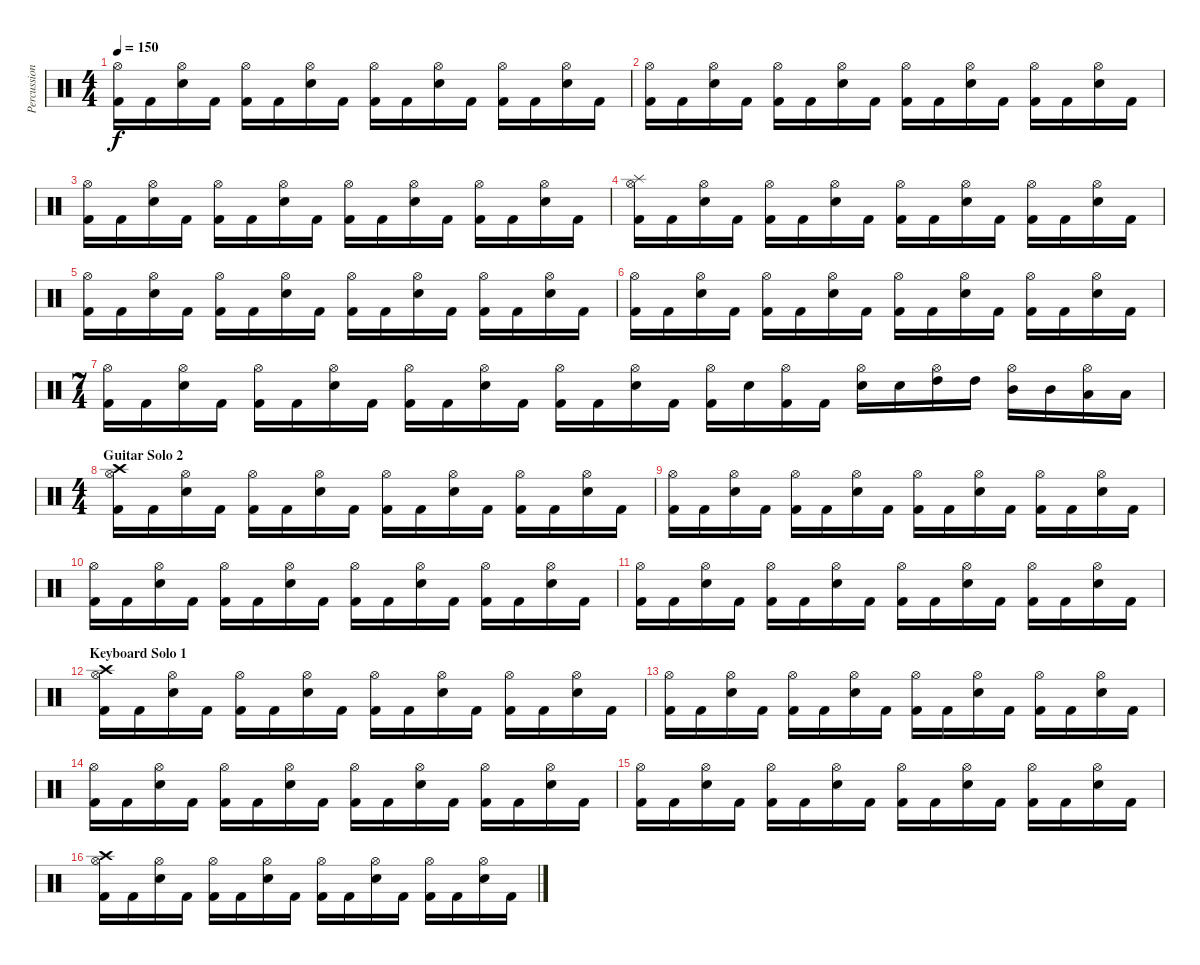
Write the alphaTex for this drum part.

\track ("Percussions" "Percussion") {instrument percussion}
\staff {score}
\articulation defaults
\ts (4 4)
\tempo 150
\clef neutral
\ks c
("Hi-Hat (open)" "Kick (hit) 2").16{dy f} "Kick (hit) 2".16 ("Hi-Hat (open)" "Electric Snare (hit)").16 "Kick (hit) 2".16 ("Hi-Hat (open)" "Kick (hit) 2").16 "Kick (hit) 2".16 ("Hi-Hat (open)" "Electric Snare (hit)").16 "Kick (hit) 2".16 ("Hi-Hat (open)" "Kick (hit) 2").16 "Kick (hit) 2".16 ("Hi-Hat (open)" "Electric Snare (hit)").16 "Kick (hit) 2".16 ("Hi-Hat (open)" "Kick (hit) 2").16 "Kick (hit) 2".16 ("Hi-Hat (open)" "Electric Snare (hit)").16 "Kick (hit) 2".16 |
("Hi-Hat (open)" "Kick (hit) 2").16 "Kick (hit) 2".16 ("Hi-Hat (open)" "Electric Snare (hit)").16 "Kick (hit) 2".16 ("Hi-Hat (open)" "Kick (hit) 2").16 "Kick (hit) 2".16 ("Hi-Hat (open)" "Electric Snare (hit)").16 "Kick (hit) 2".16 ("Hi-Hat (open)" "Kick (hit) 2").16 "Kick (hit) 2".16 ("Hi-Hat (open)" "Electric Snare (hit)").16 "Kick (hit) 2".16 ("Hi-Hat (open)" "Kick (hit) 2").16 "Kick (hit) 2".16 ("Hi-Hat (open)" "Electric Snare (hit)").16 "Kick (hit) 2".16 |
("Hi-Hat (open)" "Kick (hit) 2").16 "Kick (hit) 2".16 ("Hi-Hat (open)" "Electric Snare (hit)").16 "Kick (hit) 2".16 ("Hi-Hat (open)" "Kick (hit) 2").16 "Kick (hit) 2".16 ("Hi-Hat (open)" "Electric Snare (hit)").16 "Kick (hit) 2".16 ("Hi-Hat (open)" "Kick (hit) 2").16 "Kick (hit) 2".16 ("Hi-Hat (open)" "Electric Snare (hit)").16 "Kick (hit) 2".16 ("Hi-Hat (open)" "Kick (hit) 2").16 "Kick (hit) 2".16 ("Hi-Hat (open)" "Electric Snare (hit)").16 "Kick (hit) 2".16 |
("Splash (hit)" "Hi-Hat (open)" "Kick (hit) 2").16 "Kick (hit) 2".16 ("Hi-Hat (open)" "Electric Snare (hit)").16 "Kick (hit) 2".16 ("Hi-Hat (open)" "Kick (hit) 2").16 "Kick (hit) 2".16 ("Hi-Hat (open)" "Electric Snare (hit)").16 "Kick (hit) 2".16 ("Hi-Hat (open)" "Kick (hit) 2").16 "Kick (hit) 2".16 ("Hi-Hat (open)" "Electric Snare (hit)").16 "Kick (hit) 2".16 ("Hi-Hat (open)" "Kick (hit) 2").16 "Kick (hit) 2".16 ("Hi-Hat (open)" "Electric Snare (hit)").16 "Kick (hit) 2".16 |
("Hi-Hat (open)" "Kick (hit) 2").16 "Kick (hit) 2".16 ("Hi-Hat (open)" "Electric Snare (hit)").16 "Kick (hit) 2".16 ("Hi-Hat (open)" "Kick (hit) 2").16 "Kick (hit) 2".16 ("Hi-Hat (open)" "Electric Snare (hit)").16 "Kick (hit) 2".16 ("Hi-Hat (open)" "Kick (hit) 2").16 "Kick (hit) 2".16 ("Hi-Hat (open)" "Electric Snare (hit)").16 "Kick (hit) 2".16 ("Hi-Hat (open)" "Kick (hit) 2").16 "Kick (hit) 2".16 ("Hi-Hat (open)" "Electric Snare (hit)").16 "Kick (hit) 2".16 |
("Hi-Hat (open)" "Kick (hit) 2").16 "Kick (hit) 2".16 ("Hi-Hat (open)" "Electric Snare (hit)").16 "Kick (hit) 2".16 ("Hi-Hat (open)" "Kick (hit) 2").16 "Kick (hit) 2".16 ("Hi-Hat (open)" "Electric Snare (hit)").16 "Kick (hit) 2".16 ("Hi-Hat (open)" "Kick (hit) 2").16 "Kick (hit) 2".16 ("Hi-Hat (open)" "Electric Snare (hit)").16 "Kick (hit) 2".16 ("Hi-Hat (open)" "Kick (hit) 2").16 "Kick (hit) 2".16 ("Hi-Hat (open)" "Electric Snare (hit)").16 "Kick (hit) 2".16 |
\ts (7 4)
("Hi-Hat (open)" "Kick (hit) 2").16 "Kick (hit) 2".16 ("Hi-Hat (open)" "Electric Snare (hit)").16 "Kick (hit) 2".16 ("Hi-Hat (open)" "Kick (hit) 2").16 "Kick (hit) 2".16 ("Hi-Hat (open)" "Electric Snare (hit)").16 "Kick (hit) 2".16 ("Hi-Hat (open)" "Kick (hit) 2").16 "Kick (hit) 2".16 ("Hi-Hat (open)" "Electric Snare (hit)").16 "Kick (hit) 2".16 ("Hi-Hat (open)" "Kick (hit) 2").16 "Kick (hit) 2".16 ("Hi-Hat (open)" "Electric Snare (hit)").16 "Kick (hit) 2".16 ("Hi-Hat (open)" "Kick (hit) 2").16 "Electric Snare (hit)".16 ("Hi-Hat (open)" "Kick (hit) 2").16 "Kick (hit) 2".16 ("Hi-Hat (open)" "Electric Snare (hit)").16 "Electric Snare (hit)".16 ("Hi-Hat (open)" "High Tom (hit)").16 "High Tom (hit)".16 ("Hi-Hat (open)" "Mid Tom (hit)").16 "Mid Tom (hit)".16 ("Hi-Hat (open)" "Low Tom (hit)").16 "Low Tom (hit)".16 |
\ts (4 4)
\section ("" "Guitar Solo 2")
("Crash high (hit)" "Hi-Hat (open)" "Kick (hit) 2").16 "Kick (hit) 2".16 ("Hi-Hat (open)" "Electric Snare (hit)").16 "Kick (hit) 2".16 ("Hi-Hat (open)" "Kick (hit) 2").16 "Kick (hit) 2".16 ("Hi-Hat (open)" "Electric Snare (hit)").16 "Kick (hit) 2".16 ("Hi-Hat (open)" "Kick (hit) 2").16 "Kick (hit) 2".16 ("Hi-Hat (open)" "Electric Snare (hit)").16 "Kick (hit) 2".16 ("Hi-Hat (open)" "Kick (hit) 2").16 "Kick (hit) 2".16 ("Hi-Hat (open)" "Electric Snare (hit)").16 "Kick (hit) 2".16 |
("Hi-Hat (open)" "Kick (hit) 2").16 "Kick (hit) 2".16 ("Hi-Hat (open)" "Electric Snare (hit)").16 "Kick (hit) 2".16 ("Hi-Hat (open)" "Kick (hit) 2").16 "Kick (hit) 2".16 ("Hi-Hat (open)" "Electric Snare (hit)").16 "Kick (hit) 2".16 ("Hi-Hat (open)" "Kick (hit) 2").16 "Kick (hit) 2".16 ("Hi-Hat (open)" "Electric Snare (hit)").16 "Kick (hit) 2".16 ("Hi-Hat (open)" "Kick (hit) 2").16 "Kick (hit) 2".16 ("Hi-Hat (open)" "Electric Snare (hit)").16 "Kick (hit) 2".16 |
("Hi-Hat (open)" "Kick (hit) 2").16 "Kick (hit) 2".16 ("Hi-Hat (open)" "Electric Snare (hit)").16 "Kick (hit) 2".16 ("Hi-Hat (open)" "Kick (hit) 2").16 "Kick (hit) 2".16 ("Hi-Hat (open)" "Electric Snare (hit)").16 "Kick (hit) 2".16 ("Hi-Hat (open)" "Kick (hit) 2").16 "Kick (hit) 2".16 ("Hi-Hat (open)" "Electric Snare (hit)").16 "Kick (hit) 2".16 ("Hi-Hat (open)" "Kick (hit) 2").16 "Kick (hit) 2".16 ("Hi-Hat (open)" "Electric Snare (hit)").16 "Kick (hit) 2".16 |
("Hi-Hat (open)" "Kick (hit) 2").16 "Kick (hit) 2".16 ("Hi-Hat (open)" "Electric Snare (hit)").16 "Kick (hit) 2".16 ("Hi-Hat (open)" "Kick (hit) 2").16 "Kick (hit) 2".16 ("Hi-Hat (open)" "Electric Snare (hit)").16 "Kick (hit) 2".16 ("Hi-Hat (open)" "Kick (hit) 2").16 "Kick (hit) 2".16 ("Hi-Hat (open)" "Electric Snare (hit)").16 "Kick (hit) 2".16 ("Hi-Hat (open)" "Kick (hit) 2").16 "Kick (hit) 2".16 ("Hi-Hat (open)" "Electric Snare (hit)").16 "Kick (hit) 2".16 |
\section ("" "Keyboard Solo 1")
("Crash high (hit)" "Hi-Hat (open)" "Kick (hit) 2").16 "Kick (hit) 2".16 ("Hi-Hat (open)" "Electric Snare (hit)").16 "Kick (hit) 2".16 ("Hi-Hat (open)" "Kick (hit) 2").16 "Kick (hit) 2".16 ("Hi-Hat (open)" "Electric Snare (hit)").16 "Kick (hit) 2".16 ("Hi-Hat (open)" "Kick (hit) 2").16 "Kick (hit) 2".16 ("Hi-Hat (open)" "Electric Snare (hit)").16 "Kick (hit) 2".16 ("Hi-Hat (open)" "Kick (hit) 2").16 "Kick (hit) 2".16 ("Hi-Hat (open)" "Electric Snare (hit)").16 "Kick (hit) 2".16 |
("Hi-Hat (open)" "Kick (hit) 2").16 "Kick (hit) 2".16 ("Hi-Hat (open)" "Electric Snare (hit)").16 "Kick (hit) 2".16 ("Hi-Hat (open)" "Kick (hit) 2").16 "Kick (hit) 2".16 ("Hi-Hat (open)" "Electric Snare (hit)").16 "Kick (hit) 2".16 ("Hi-Hat (open)" "Kick (hit) 2").16 "Kick (hit) 2".16 ("Hi-Hat (open)" "Electric Snare (hit)").16 "Kick (hit) 2".16 ("Hi-Hat (open)" "Kick (hit) 2").16 "Kick (hit) 2".16 ("Hi-Hat (open)" "Electric Snare (hit)").16 "Kick (hit) 2".16 |
("Hi-Hat (open)" "Kick (hit) 2").16 "Kick (hit) 2".16 ("Hi-Hat (open)" "Electric Snare (hit)").16 "Kick (hit) 2".16 ("Hi-Hat (open)" "Kick (hit) 2").16 "Kick (hit) 2".16 ("Hi-Hat (open)" "Electric Snare (hit)").16 "Kick (hit) 2".16 ("Hi-Hat (open)" "Kick (hit) 2").16 "Kick (hit) 2".16 ("Hi-Hat (open)" "Electric Snare (hit)").16 "Kick (hit) 2".16 ("Hi-Hat (open)" "Kick (hit) 2").16 "Kick (hit) 2".16 ("Hi-Hat (open)" "Electric Snare (hit)").16 "Kick (hit) 2".16 |
("Hi-Hat (open)" "Kick (hit) 2").16 "Kick (hit) 2".16 ("Hi-Hat (open)" "Electric Snare (hit)").16 "Kick (hit) 2".16 ("Hi-Hat (open)" "Kick (hit) 2").16 "Kick (hit) 2".16 ("Hi-Hat (open)" "Electric Snare (hit)").16 "Kick (hit) 2".16 ("Hi-Hat (open)" "Kick (hit) 2").16 "Kick (hit) 2".16 ("Hi-Hat (open)" "Electric Snare (hit)").16 "Kick (hit) 2".16 ("Hi-Hat (open)" "Kick (hit) 2").16 "Kick (hit) 2".16 ("Hi-Hat (open)" "Electric Snare (hit)").16 "Kick (hit) 2".16 |
("Crash high (hit)" "Hi-Hat (open)" "Kick (hit) 2").16 "Kick (hit) 2".16 ("Hi-Hat (open)" "Electric Snare (hit)").16 "Kick (hit) 2".16 ("Hi-Hat (open)" "Kick (hit) 2").16 "Kick (hit) 2".16 ("Hi-Hat (open)" "Electric Snare (hit)").16 "Kick (hit) 2".16 ("Hi-Hat (open)" "Kick (hit) 2").16 "Kick (hit) 2".16 ("Hi-Hat (open)" "Electric Snare (hit)").16 "Kick (hit) 2".16 ("Hi-Hat (open)" "Kick (hit) 2").16 "Kick (hit) 2".16 ("Hi-Hat (open)" "Electric Snare (hit)").16 "Kick (hit) 2".16
